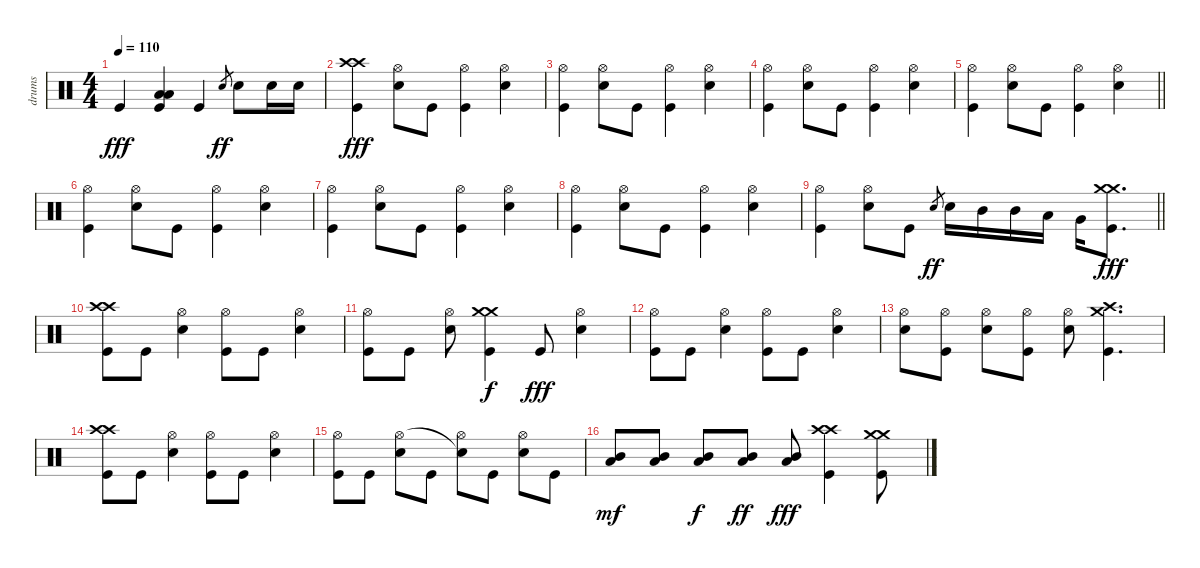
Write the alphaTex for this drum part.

\track ("drums" "drums") {instrument percussion}
\staff {score}
\articulation defaults
\ts (4 4)
\tempo 110
\clef neutral
\ks c "Kick (hit)".4{dy fff}
("Low Tom (hit)" "Low Floor Tom (hit)" "Kick (hit)").4 "Kick (hit)".4 "Electric Snare (hit)".8{gr dy ff} "Electric Snare (hit)".8 "Electric Snare (hit)".16 "Electric Snare (hit)".16 |
("Crash high (hit)" "Crash high (hit)" "Kick (hit)").4{dy fff} ("Electric Snare (hit)" "Hi-Hat (open)").8 "Kick (hit)".8 ("Hi-Hat (open)" "Kick (hit)").4 ("Electric Snare (hit)" "Hi-Hat (open)").4 |
("Hi-Hat (open)" "Kick (hit)").4 ("Electric Snare (hit)" "Hi-Hat (open)").8 "Kick (hit)".8 ("Hi-Hat (open)" "Kick (hit)").4 ("Electric Snare (hit)" "Hi-Hat (open)").4 |
("Hi-Hat (open)" "Kick (hit)").4 ("Electric Snare (hit)" "Hi-Hat (open)").8 "Kick (hit)".8 ("Hi-Hat (open)" "Kick (hit)").4 ("Electric Snare (hit)" "Hi-Hat (open)").4 |
\barLineRight lightlight
("Hi-Hat (open)" "Kick (hit)").4 ("Electric Snare (hit)" "Hi-Hat (open)").8 "Kick (hit)".8 ("Hi-Hat (open)" "Kick (hit)").4 ("Electric Snare (hit)" "Hi-Hat (open)").4 |
("Hi-Hat (open)" "Kick (hit)").4 ("Electric Snare (hit)" "Hi-Hat (open)").8 "Kick (hit)".8 ("Hi-Hat (open)" "Kick (hit)").4 ("Electric Snare (hit)" "Hi-Hat (open)").4 |
("Hi-Hat (open)" "Kick (hit)").4 ("Electric Snare (hit)" "Hi-Hat (open)").8 "Kick (hit)".8 ("Hi-Hat (open)" "Kick (hit)").4 ("Electric Snare (hit)" "Hi-Hat (open)").4 |
("Hi-Hat (open)" "Kick (hit)").4 ("Electric Snare (hit)" "Hi-Hat (open)").8 "Kick (hit)".8 ("Hi-Hat (open)" "Kick (hit)").4 ("Electric Snare (hit)" "Hi-Hat (open)").4 |
\barLineRight lightlight
("Hi-Hat (open)" "Kick (hit)").4 ("Electric Snare (hit)" "Hi-Hat (open)").8 "Kick (hit)".8 "Electric Snare (hit)".8{gr dy ff} "Electric Snare (hit)".16 "Mid Tom (hit)".16 "Mid Tom (hit)".16 "Low Tom (hit)".16 "Very Low Tom (hit)".16 ("Crash medium (hit)" "Crash medium (hit)" "Kick (hit)").8{d dy fff} |
("Crash high (hit)" "Crash high (hit)" "Kick (hit)").8 "Kick (hit)".8 ("Electric Snare (hit)" "Hi-Hat (open)").4 ("Hi-Hat (open)" "Kick (hit)").8 "Kick (hit)".8 ("Electric Snare (hit)" "Hi-Hat (open)").4 |
("Hi-Hat (open)" "Kick (hit)").8 "Kick (hit)".8 ("Electric Snare (hit)" "Hi-Hat (open)").8 ("Crash medium (hit)" "Crash medium (hit)" "Kick (hit)").4{dy f} "Kick (hit)".8{dy fff} ("Electric Snare (hit)" "Hi-Hat (open)").4 |
("Hi-Hat (open)" "Kick (hit)").8 "Kick (hit)".8 ("Electric Snare (hit)" "Hi-Hat (open)").4 ("Hi-Hat (open)" "Kick (hit)").8 "Kick (hit)".8 ("Electric Snare (hit)" "Hi-Hat (open)").4 |
("Electric Snare (hit)" "Hi-Hat (open)").8 ("Hi-Hat (open)" "Kick (hit)").8 ("Electric Snare (hit)" "Hi-Hat (open)").8 ("Hi-Hat (open)" "Kick (hit)").8 ("Electric Snare (hit)" "Hi-Hat (open)").8 ("Crash high (hit)" "Crash medium (hit)" "Kick (hit)").4{d} |
("Crash high (hit)" "Crash high (hit)" "Kick (hit)").8 "Kick (hit)".8 ("Electric Snare (hit)" "Hi-Hat (open)").4 ("Hi-Hat (open)" "Kick (hit)").8 "Kick (hit)".8 ("Electric Snare (hit)" "Hi-Hat (open)").4 |
("Hi-Hat (open)" "Kick (hit)").8 "Kick (hit)".8 ("Electric Snare (hit)" "Hi-Hat (open)").8 "Kick (hit)".8 ("Hi-Hat (open)" "Snare (hit)"{t}).8 "Kick (hit)".8 ("Electric Snare (hit)" "Hi-Hat (open)").8 "Kick (hit)".8 |
("Mid Tom (hit)" "Low Tom (hit)").8{dy mf} ("Mid Tom (hit)" "Low Tom (hit)").8 ("Mid Tom (hit)" "Low Tom (hit)").8{dy f} ("Mid Tom (hit)" "Low Tom (hit)").8{dy ff} ("Mid Tom (hit)" "Low Tom (hit)").8{dy fff} ("Crash high (hit)" "Crash high (hit)" "Kick (hit)").4 ("Crash medium (hit)" "Crash medium (hit)" "Kick (hit)").8
